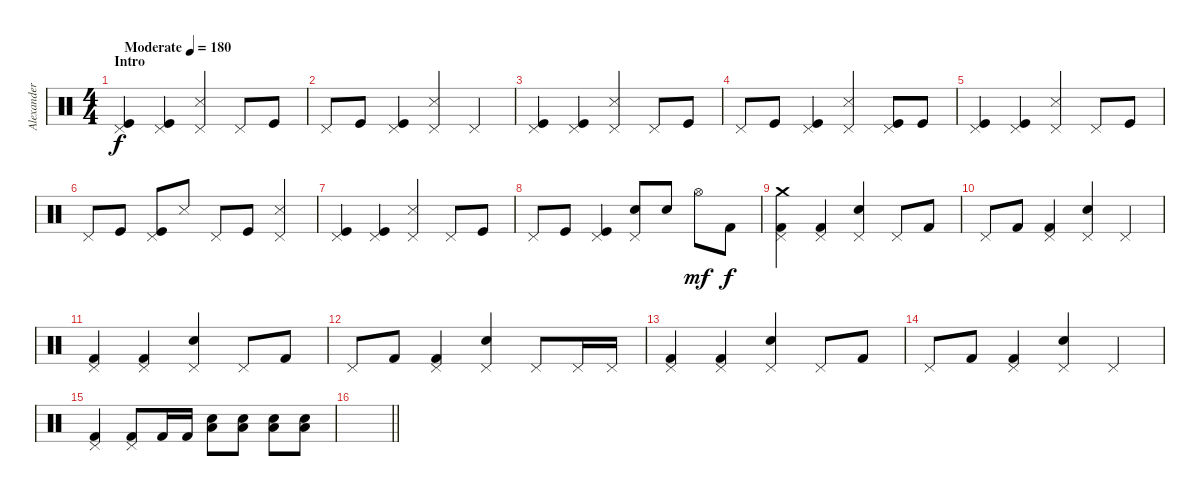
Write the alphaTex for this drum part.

\track ("Alexander Sveningsson" "Alexander ") {instrument percussion}
\staff {score}
\articulation defaults
\ts (4 4)
\section ("" "Intro")
\tempo (180 "Moderate")
\clef neutral
\ks c
("Pedal Hi-Hat (hit)" "Kick (hit)").4{dy f} ("Pedal Hi-Hat (hit)" "Kick (hit)").4 ("Pedal Hi-Hat (hit)" "Snare (side stick) 3").4 "Pedal Hi-Hat (hit)".8 "Kick (hit)".8 |
"Pedal Hi-Hat (hit)".8 "Kick (hit)".8 ("Pedal Hi-Hat (hit)" "Kick (hit)").4 ("Pedal Hi-Hat (hit)" "Snare (side stick) 3").4 "Pedal Hi-Hat (hit)".4 |
("Pedal Hi-Hat (hit)" "Kick (hit)").4 ("Pedal Hi-Hat (hit)" "Kick (hit)").4 ("Pedal Hi-Hat (hit)" "Snare (side stick) 3").4 "Pedal Hi-Hat (hit)".8 "Kick (hit)".8 |
"Pedal Hi-Hat (hit)".8 "Kick (hit)".8 ("Pedal Hi-Hat (hit)" "Kick (hit)").4 ("Pedal Hi-Hat (hit)" "Snare (side stick) 3").4 ("Pedal Hi-Hat (hit)" "Kick (hit)").8 "Kick (hit)".8 |
("Pedal Hi-Hat (hit)" "Kick (hit)").4 ("Pedal Hi-Hat (hit)" "Kick (hit)").4 ("Pedal Hi-Hat (hit)" "Snare (side stick) 3").4 "Pedal Hi-Hat (hit)".8 "Kick (hit)".8 |
"Pedal Hi-Hat (hit)".8 "Kick (hit)".8 ("Pedal Hi-Hat (hit)" "Kick (hit)").8 "Snare (side stick) 3".8 "Pedal Hi-Hat (hit)".8 "Kick (hit)".8 ("Pedal Hi-Hat (hit)" "Snare (side stick) 3").4 |
("Pedal Hi-Hat (hit)" "Kick (hit)").4 ("Pedal Hi-Hat (hit)" "Kick (hit)").4 ("Pedal Hi-Hat (hit)" "Snare (side stick) 3").4 "Pedal Hi-Hat (hit)".8 "Kick (hit)".8 |
"Pedal Hi-Hat (hit)".8 "Kick (hit)".8 ("Pedal Hi-Hat (hit)" "Kick (hit)").4 ("Pedal Hi-Hat (hit)" "Electric Snare (hit)").8 "Electric Snare (hit)".8 "Hi-Hat (open)".8{dy mf} "Kick (hit) 2".8{dy f} |
("Crash medium (hit)" "Pedal Hi-Hat (hit)" "Kick (hit) 2").4 ("Pedal Hi-Hat (hit)" "Kick (hit) 2").4 ("Pedal Hi-Hat (hit)" "Electric Snare (hit)").4 "Pedal Hi-Hat (hit)".8 "Kick (hit) 2".8 |
"Pedal Hi-Hat (hit)".8 "Kick (hit) 2".8 ("Pedal Hi-Hat (hit)" "Kick (hit) 2").4 ("Pedal Hi-Hat (hit)" "Electric Snare (hit)").4 "Pedal Hi-Hat (hit)".4 |
("Pedal Hi-Hat (hit)" "Kick (hit) 2").4 ("Pedal Hi-Hat (hit)" "Kick (hit) 2").4 ("Pedal Hi-Hat (hit)" "Electric Snare (hit)").4 "Pedal Hi-Hat (hit)".8 "Kick (hit) 2".8 |
"Pedal Hi-Hat (hit)".8 "Kick (hit) 2".8 ("Pedal Hi-Hat (hit)" "Kick (hit) 2").4 ("Pedal Hi-Hat (hit)" "Electric Snare (hit)").4 "Pedal Hi-Hat (hit)".8 "Pedal Hi-Hat (hit)".16 "Pedal Hi-Hat (hit)".16 |
("Pedal Hi-Hat (hit)" "Kick (hit) 2").4 ("Pedal Hi-Hat (hit)" "Kick (hit) 2").4 ("Pedal Hi-Hat (hit)" "Electric Snare (hit)").4 "Pedal Hi-Hat (hit)".8 "Kick (hit) 2".8 |
"Pedal Hi-Hat (hit)".8 "Kick (hit) 2".8 ("Pedal Hi-Hat (hit)" "Kick (hit) 2").4 ("Pedal Hi-Hat (hit)" "Electric Snare (hit)").4 "Pedal Hi-Hat (hit)".4 |
("Pedal Hi-Hat (hit)" "Kick (hit) 2").4 ("Pedal Hi-Hat (hit)" "Kick (hit) 2").8 "Kick (hit) 2".16 "Kick (hit) 2".16 ("Low Floor Tom (hit)" "Electric Snare (hit)").8 ("Low Floor Tom (hit)" "Electric Snare (hit)").8 ("Low Floor Tom (hit)" "Electric Snare (hit)").8 ("Low Floor Tom (hit)" "Electric Snare (hit)").8 |
\barLineRight lightlight
